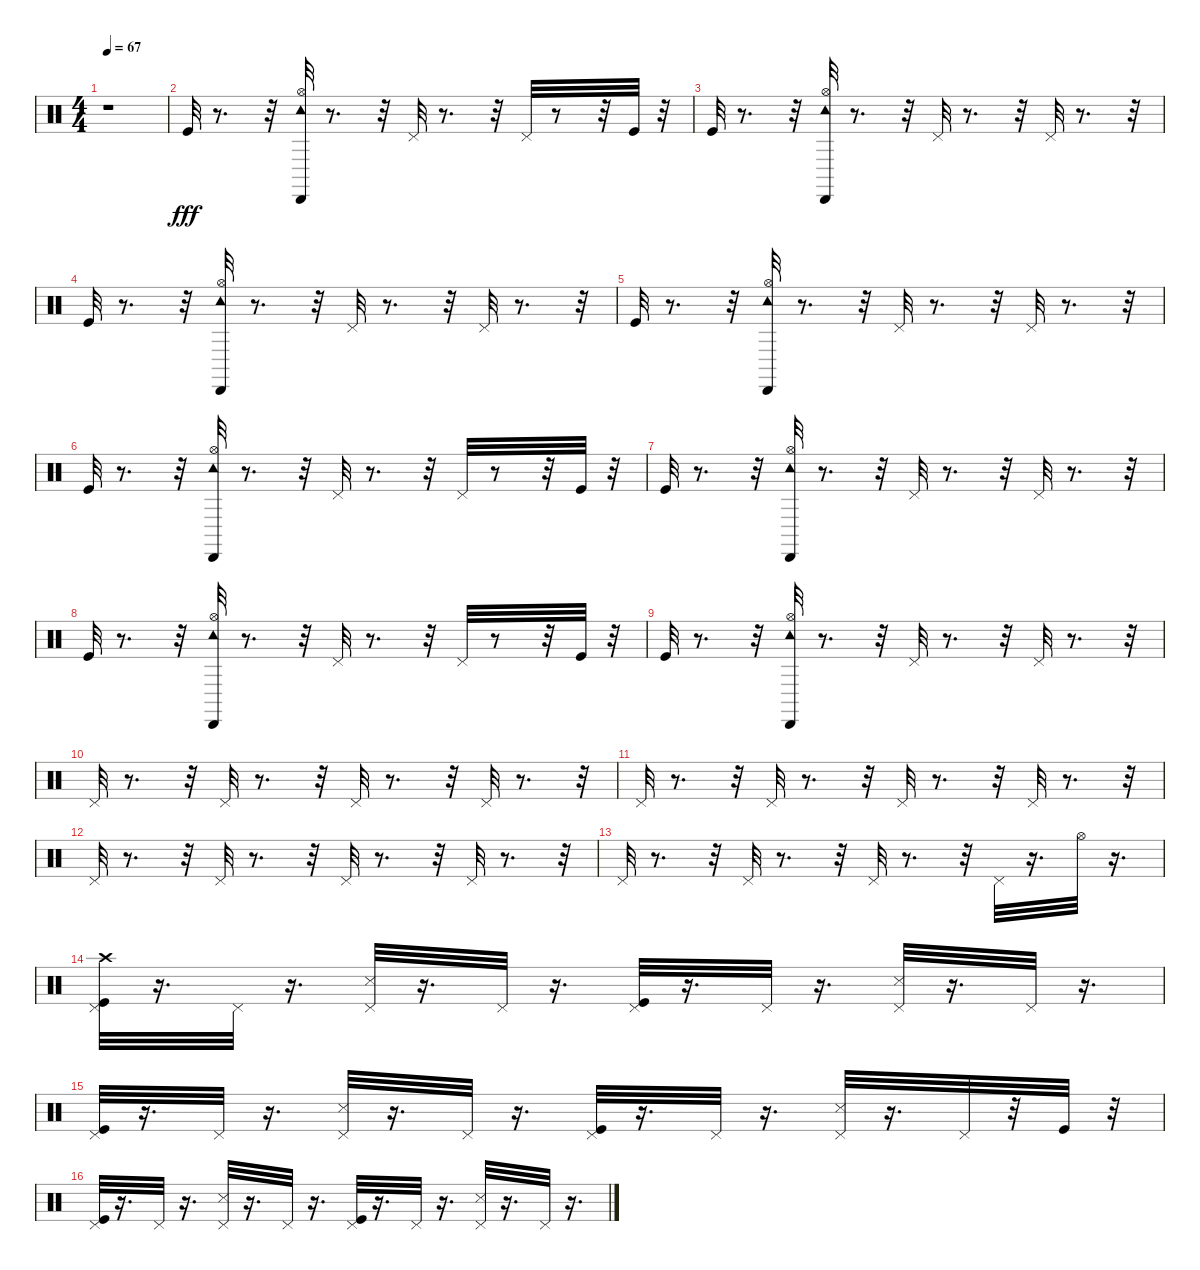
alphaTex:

\track "" {instrument percussion}
\staff {score}
\articulation defaults
\ts (4 4)
\tempo 67
\clef neutral
\ks c
r.1{dy fff} |
"Kick (hit)".32 r.8{d} r.32 ("Hi-Hat (open)" "Tambourine (hit)" "Cabasa (hit)").32 r.8{d} r.32 "Pedal Hi-Hat (hit)".32 r.8{d} r.32 "Pedal Hi-Hat (hit)".32 r.8 r.32 "Kick (hit)".32 r.32 |
"Kick (hit)".32 r.8{d} r.32 ("Hi-Hat (open)" "Tambourine (hit)" "Cabasa (hit)").32 r.8{d} r.32 "Pedal Hi-Hat (hit)".32 r.8{d} r.32 "Pedal Hi-Hat (hit)".32 r.8{d} r.32 |
"Kick (hit)".32 r.8{d} r.32 ("Hi-Hat (open)" "Tambourine (hit)" "Cabasa (hit)").32 r.8{d} r.32 "Pedal Hi-Hat (hit)".32 r.8{d} r.32 "Pedal Hi-Hat (hit)".32 r.8{d} r.32 |
"Kick (hit)".32 r.8{d} r.32 ("Hi-Hat (open)" "Tambourine (hit)" "Cabasa (hit)").32 r.8{d} r.32 "Pedal Hi-Hat (hit)".32 r.8{d} r.32 "Pedal Hi-Hat (hit)".32 r.8{d} r.32 |
"Kick (hit)".32 r.8{d} r.32 ("Hi-Hat (open)" "Tambourine (hit)" "Cabasa (hit)").32 r.8{d} r.32 "Pedal Hi-Hat (hit)".32 r.8{d} r.32 "Pedal Hi-Hat (hit)".32 r.8 r.32 "Kick (hit)".32 r.32 |
"Kick (hit)".32 r.8{d} r.32 ("Hi-Hat (open)" "Tambourine (hit)" "Cabasa (hit)").32 r.8{d} r.32 "Pedal Hi-Hat (hit)".32 r.8{d} r.32 "Pedal Hi-Hat (hit)".32 r.8{d} r.32 |
"Kick (hit)".32 r.8{d} r.32 ("Hi-Hat (open)" "Tambourine (hit)" "Cabasa (hit)").32 r.8{d} r.32 "Pedal Hi-Hat (hit)".32 r.8{d} r.32 "Pedal Hi-Hat (hit)".32 r.8 r.32 "Kick (hit)".32 r.32 |
"Kick (hit)".32 r.8{d} r.32 ("Hi-Hat (open)" "Tambourine (hit)" "Cabasa (hit)").32 r.8{d} r.32 "Pedal Hi-Hat (hit)".32 r.8{d} r.32 "Pedal Hi-Hat (hit)".32 r.8{d} r.32 |
"Pedal Hi-Hat (hit)".32 r.8{d} r.32 "Pedal Hi-Hat (hit)".32 r.8{d} r.32 "Pedal Hi-Hat (hit)".32 r.8{d} r.32 "Pedal Hi-Hat (hit)".32 r.8{d} r.32 |
"Pedal Hi-Hat (hit)".32 r.8{d} r.32 "Pedal Hi-Hat (hit)".32 r.8{d} r.32 "Pedal Hi-Hat (hit)".32 r.8{d} r.32 "Pedal Hi-Hat (hit)".32 r.8{d} r.32 |
"Pedal Hi-Hat (hit)".32 r.8{d} r.32 "Pedal Hi-Hat (hit)".32 r.8{d} r.32 "Pedal Hi-Hat (hit)".32 r.8{d} r.32 "Pedal Hi-Hat (hit)".32 r.8{d} r.32 |
"Pedal Hi-Hat (hit)".32 r.8{d} r.32 "Pedal Hi-Hat (hit)".32 r.8{d} r.32 "Pedal Hi-Hat (hit)".32 r.8{d} r.32 "Pedal Hi-Hat (hit)".32 r.16{d} "Hi-Hat (open)".32 r.16{d} |
("Kick (hit)" "Pedal Hi-Hat (hit)" "Crash high (hit)").32 r.16{d} "Pedal Hi-Hat (hit)".32 r.16{d} ("Pedal Hi-Hat (hit)" "Snare (side stick) 3").32 r.16{d} "Pedal Hi-Hat (hit)".32 r.16{d} ("Kick (hit)" "Pedal Hi-Hat (hit)").32 r.16{d} "Pedal Hi-Hat (hit)".32 r.16{d} ("Pedal Hi-Hat (hit)" "Snare (side stick) 3").32 r.16{d} "Pedal Hi-Hat (hit)".32 r.16{d} |
("Kick (hit)" "Pedal Hi-Hat (hit)").32 r.16{d} "Pedal Hi-Hat (hit)".32 r.16{d} ("Pedal Hi-Hat (hit)" "Snare (side stick) 3").32 r.16{d} "Pedal Hi-Hat (hit)".32 r.16{d} ("Kick (hit)" "Pedal Hi-Hat (hit)").32 r.16{d} "Pedal Hi-Hat (hit)".32 r.16{d} ("Pedal Hi-Hat (hit)" "Snare (side stick) 3").32 r.16{d} "Pedal Hi-Hat (hit)".32 r.32 "Kick (hit)".32 r.32 |
("Kick (hit)" "Pedal Hi-Hat (hit)").32 r.16{d} "Pedal Hi-Hat (hit)".32 r.16{d} ("Pedal Hi-Hat (hit)" "Snare (side stick) 3").32 r.16{d} "Pedal Hi-Hat (hit)".32 r.16{d} ("Kick (hit)" "Pedal Hi-Hat (hit)").32 r.16{d} "Pedal Hi-Hat (hit)".32 r.16{d} ("Pedal Hi-Hat (hit)" "Snare (side stick) 3").32 r.16{d} "Pedal Hi-Hat (hit)".32 r.16{d}
